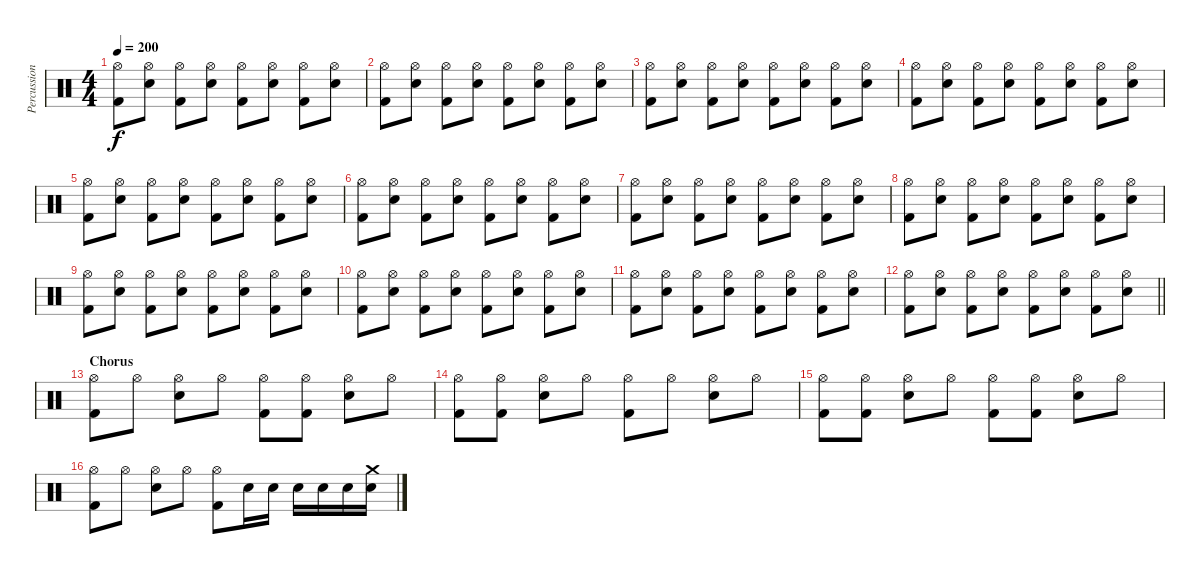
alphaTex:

\track ("Percussion" "Percussion") {instrument percussion}
\staff {score}
\articulation defaults
\ts (4 4)
\tempo 200
\clef neutral
\ks c
("Hi-Hat (open)" "Kick (hit) 2").8{dy f} ("Hi-Hat (open)" "Snare (hit) 2").8 ("Hi-Hat (open)" "Kick (hit) 2").8 ("Hi-Hat (open)" "Snare (hit) 2").8 ("Hi-Hat (open)" "Kick (hit) 2").8 ("Hi-Hat (open)" "Snare (hit) 2").8 ("Hi-Hat (open)" "Kick (hit) 2").8 ("Hi-Hat (open)" "Snare (hit) 2").8 |
("Hi-Hat (open)" "Kick (hit) 2").8 ("Hi-Hat (open)" "Snare (hit) 2").8 ("Hi-Hat (open)" "Kick (hit) 2").8 ("Hi-Hat (open)" "Snare (hit) 2").8 ("Hi-Hat (open)" "Kick (hit) 2").8 ("Hi-Hat (open)" "Snare (hit) 2").8 ("Hi-Hat (open)" "Kick (hit) 2").8 ("Hi-Hat (open)" "Snare (hit) 2").8 |
("Hi-Hat (open)" "Kick (hit) 2").8 ("Hi-Hat (open)" "Snare (hit) 2").8 ("Hi-Hat (open)" "Kick (hit) 2").8 ("Hi-Hat (open)" "Snare (hit) 2").8 ("Hi-Hat (open)" "Kick (hit) 2").8 ("Hi-Hat (open)" "Snare (hit) 2").8 ("Hi-Hat (open)" "Kick (hit) 2").8 ("Hi-Hat (open)" "Snare (hit) 2").8 |
("Hi-Hat (open)" "Kick (hit) 2").8 ("Hi-Hat (open)" "Snare (hit) 2").8 ("Hi-Hat (open)" "Kick (hit) 2").8 ("Hi-Hat (open)" "Snare (hit) 2").8 ("Hi-Hat (open)" "Kick (hit) 2").8 ("Hi-Hat (open)" "Snare (hit) 2").8 ("Hi-Hat (open)" "Kick (hit) 2").8 ("Hi-Hat (open)" "Snare (hit) 2").8 |
("Hi-Hat (open)" "Kick (hit) 2").8 ("Hi-Hat (open)" "Snare (hit) 2").8 ("Hi-Hat (open)" "Kick (hit) 2").8 ("Hi-Hat (open)" "Snare (hit) 2").8 ("Hi-Hat (open)" "Kick (hit) 2").8 ("Hi-Hat (open)" "Snare (hit) 2").8 ("Hi-Hat (open)" "Kick (hit) 2").8 ("Hi-Hat (open)" "Snare (hit) 2").8 |
("Hi-Hat (open)" "Kick (hit) 2").8 ("Hi-Hat (open)" "Snare (hit) 2").8 ("Hi-Hat (open)" "Kick (hit) 2").8 ("Hi-Hat (open)" "Snare (hit) 2").8 ("Hi-Hat (open)" "Kick (hit) 2").8 ("Hi-Hat (open)" "Snare (hit) 2").8 ("Hi-Hat (open)" "Kick (hit) 2").8 ("Hi-Hat (open)" "Snare (hit) 2").8 |
("Hi-Hat (open)" "Kick (hit) 2").8 ("Hi-Hat (open)" "Snare (hit) 2").8 ("Hi-Hat (open)" "Kick (hit) 2").8 ("Hi-Hat (open)" "Snare (hit) 2").8 ("Hi-Hat (open)" "Kick (hit) 2").8 ("Hi-Hat (open)" "Snare (hit) 2").8 ("Hi-Hat (open)" "Kick (hit) 2").8 ("Hi-Hat (open)" "Snare (hit) 2").8 |
("Hi-Hat (open)" "Kick (hit) 2").8 ("Hi-Hat (open)" "Snare (hit) 2").8 ("Hi-Hat (open)" "Kick (hit) 2").8 ("Hi-Hat (open)" "Snare (hit) 2").8 ("Hi-Hat (open)" "Kick (hit) 2").8 ("Hi-Hat (open)" "Snare (hit) 2").8 ("Hi-Hat (open)" "Kick (hit) 2").8 ("Hi-Hat (open)" "Snare (hit) 2").8 |
("Hi-Hat (open)" "Kick (hit) 2").8 ("Hi-Hat (open)" "Snare (hit) 2").8 ("Hi-Hat (open)" "Kick (hit) 2").8 ("Hi-Hat (open)" "Snare (hit) 2").8 ("Hi-Hat (open)" "Kick (hit) 2").8 ("Hi-Hat (open)" "Snare (hit) 2").8 ("Hi-Hat (open)" "Kick (hit) 2").8 ("Hi-Hat (open)" "Snare (hit) 2").8 |
("Hi-Hat (open)" "Kick (hit) 2").8 ("Hi-Hat (open)" "Snare (hit) 2").8 ("Hi-Hat (open)" "Kick (hit) 2").8 ("Hi-Hat (open)" "Snare (hit) 2").8 ("Hi-Hat (open)" "Kick (hit) 2").8 ("Hi-Hat (open)" "Snare (hit) 2").8 ("Hi-Hat (open)" "Kick (hit) 2").8 ("Hi-Hat (open)" "Snare (hit) 2").8 |
("Hi-Hat (open)" "Kick (hit) 2").8 ("Hi-Hat (open)" "Snare (hit) 2").8 ("Hi-Hat (open)" "Kick (hit) 2").8 ("Hi-Hat (open)" "Snare (hit) 2").8 ("Hi-Hat (open)" "Kick (hit) 2").8 ("Hi-Hat (open)" "Snare (hit) 2").8 ("Hi-Hat (open)" "Kick (hit) 2").8 ("Hi-Hat (open)" "Snare (hit) 2").8 |
\barLineRight lightlight
("Hi-Hat (open)" "Kick (hit) 2").8 ("Hi-Hat (open)" "Snare (hit) 2").8 ("Hi-Hat (open)" "Kick (hit) 2").8 ("Hi-Hat (open)" "Snare (hit) 2").8 ("Hi-Hat (open)" "Kick (hit) 2").8 ("Hi-Hat (open)" "Snare (hit) 2").8 ("Hi-Hat (open)" "Kick (hit) 2").8 ("Hi-Hat (open)" "Snare (hit) 2").8 |
\section ("" "Chorus")
("Hi-Hat (open)" "Kick (hit) 2").8 "Hi-Hat (open)".8 ("Hi-Hat (open)" "Snare (hit) 2").8 "Hi-Hat (open)".8 ("Hi-Hat (open)" "Kick (hit) 2").8 ("Hi-Hat (open)" "Kick (hit) 2").8 ("Hi-Hat (open)" "Snare (hit) 2").8 "Hi-Hat (open)".8 |
("Hi-Hat (open)" "Kick (hit) 2").8 ("Hi-Hat (open)" "Kick (hit) 2").8 ("Hi-Hat (open)" "Snare (hit) 2").8 "Hi-Hat (open)".8 ("Hi-Hat (open)" "Kick (hit) 2").8 "Hi-Hat (open)".8 ("Hi-Hat (open)" "Snare (hit) 2").8 "Hi-Hat (open)".8 |
("Hi-Hat (open)" "Kick (hit) 2").8 ("Hi-Hat (open)" "Kick (hit) 2").8 ("Hi-Hat (open)" "Snare (hit) 2").8 "Hi-Hat (open)".8 ("Hi-Hat (open)" "Kick (hit) 2").8 ("Hi-Hat (open)" "Kick (hit) 2").8 ("Hi-Hat (open)" "Snare (hit) 2").8 "Hi-Hat (open)".8 |
("Hi-Hat (open)" "Kick (hit) 2").8 "Hi-Hat (open)".8 ("Hi-Hat (open)" "Snare (hit) 2").8 "Hi-Hat (open)".8 ("Hi-Hat (open)" "Kick (hit) 2").8 "Snare (hit) 2".16 "Snare (hit) 2".16 "Snare (hit) 2".16 "Snare (hit) 2".16 "Snare (hit) 2".16 ("Crash medium (hit)" "Snare (hit) 2").16
